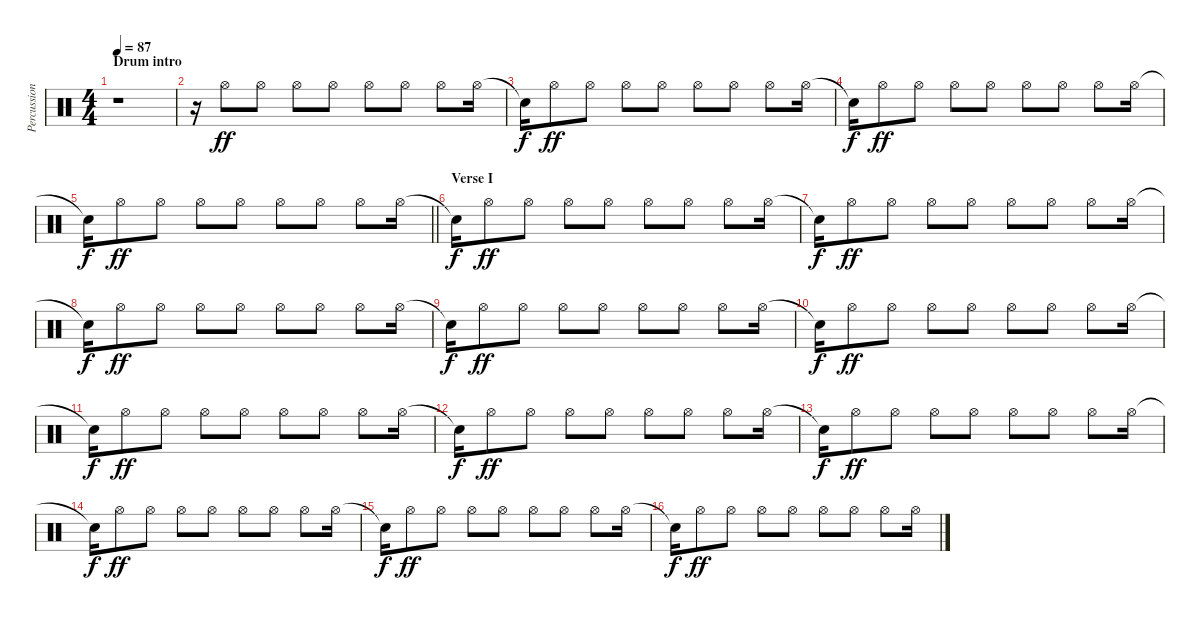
\track ("Percussion" "Percussion") {instrument percussion}
\staff {score}
\articulation defaults
\ts (4 4)
\section ("" "Drum intro")
\tempo 87
\clef neutral
\ks c
r.1{dy ff} |
r.16 "Hi-Hat (open)".8 "Hi-Hat (open)".8 "Hi-Hat (open)".8 "Hi-Hat (open)".8 "Hi-Hat (open)".8 "Hi-Hat (open)".8 "Hi-Hat (open)".8 "Hi-Hat (open)".16 |
"Snare (hit)"{t}.16{dy f} "Hi-Hat (open)".8{dy ff} "Hi-Hat (open)".8 "Hi-Hat (open)".8 "Hi-Hat (open)".8 "Hi-Hat (open)".8 "Hi-Hat (open)".8 "Hi-Hat (open)".8 "Hi-Hat (open)".16 |
"Snare (hit)"{t}.16{dy f} "Hi-Hat (open)".8{dy ff} "Hi-Hat (open)".8 "Hi-Hat (open)".8 "Hi-Hat (open)".8 "Hi-Hat (open)".8 "Hi-Hat (open)".8 "Hi-Hat (open)".8 "Hi-Hat (open)".16 |
\barLineRight lightlight "Snare (hit)"{t}.16{dy f} "Hi-Hat (open)".8{dy ff} "Hi-Hat (open)".8 "Hi-Hat (open)".8 "Hi-Hat (open)".8 "Hi-Hat (open)".8 "Hi-Hat (open)".8 "Hi-Hat (open)".8 "Hi-Hat (open)".16
|
\section ("" "Verse I")
"Snare (hit)"{t}.16{dy f} "Hi-Hat (open)".8{dy ff} "Hi-Hat (open)".8 "Hi-Hat (open)".8 "Hi-Hat (open)".8 "Hi-Hat (open)".8 "Hi-Hat (open)".8 "Hi-Hat (open)".8 "Hi-Hat (open)".16 |
"Snare (hit)"{t}.16{dy f} "Hi-Hat (open)".8{dy ff} "Hi-Hat (open)".8 "Hi-Hat (open)".8 "Hi-Hat (open)".8 "Hi-Hat (open)".8 "Hi-Hat (open)".8 "Hi-Hat (open)".8 "Hi-Hat (open)".16 |
"Snare (hit)"{t}.16{dy f} "Hi-Hat (open)".8{dy ff} "Hi-Hat (open)".8 "Hi-Hat (open)".8 "Hi-Hat (open)".8 "Hi-Hat (open)".8 "Hi-Hat (open)".8 "Hi-Hat (open)".8 "Hi-Hat (open)".16 |
"Snare (hit)"{t}.16{dy f} "Hi-Hat (open)".8{dy ff} "Hi-Hat (open)".8 "Hi-Hat (open)".8 "Hi-Hat (open)".8 "Hi-Hat (open)".8 "Hi-Hat (open)".8 "Hi-Hat (open)".8 "Hi-Hat (open)".16 |
"Snare (hit)"{t}.16{dy f} "Hi-Hat (open)".8{dy ff} "Hi-Hat (open)".8 "Hi-Hat (open)".8 "Hi-Hat (open)".8 "Hi-Hat (open)".8 "Hi-Hat (open)".8 "Hi-Hat (open)".8 "Hi-Hat (open)".16 |
"Snare (hit)"{t}.16{dy f} "Hi-Hat (open)".8{dy ff} "Hi-Hat (open)".8 "Hi-Hat (open)".8 "Hi-Hat (open)".8 "Hi-Hat (open)".8 "Hi-Hat (open)".8 "Hi-Hat (open)".8 "Hi-Hat (open)".16 |
"Snare (hit)"{t}.16{dy f} "Hi-Hat (open)".8{dy ff} "Hi-Hat (open)".8 "Hi-Hat (open)".8 "Hi-Hat (open)".8 "Hi-Hat (open)".8 "Hi-Hat (open)".8 "Hi-Hat (open)".8 "Hi-Hat (open)".16 |
"Snare (hit)"{t}.16{dy f} "Hi-Hat (open)".8{dy ff} "Hi-Hat (open)".8 "Hi-Hat (open)".8 "Hi-Hat (open)".8 "Hi-Hat (open)".8 "Hi-Hat (open)".8 "Hi-Hat (open)".8 "Hi-Hat (open)".16 |
"Snare (hit)"{t}.16{dy f} "Hi-Hat (open)".8{dy ff} "Hi-Hat (open)".8 "Hi-Hat (open)".8 "Hi-Hat (open)".8 "Hi-Hat (open)".8 "Hi-Hat (open)".8 "Hi-Hat (open)".8 "Hi-Hat (open)".16 |
"Snare (hit)"{t}.16{dy f} "Hi-Hat (open)".8{dy ff} "Hi-Hat (open)".8 "Hi-Hat (open)".8 "Hi-Hat (open)".8 "Hi-Hat (open)".8 "Hi-Hat (open)".8 "Hi-Hat (open)".8 "Hi-Hat (open)".16 |
"Snare (hit)"{t}.16{dy f} "Hi-Hat (open)".8{dy ff} "Hi-Hat (open)".8 "Hi-Hat (open)".8 "Hi-Hat (open)".8 "Hi-Hat (open)".8 "Hi-Hat (open)".8 "Hi-Hat (open)".8 "Hi-Hat (open)".16
